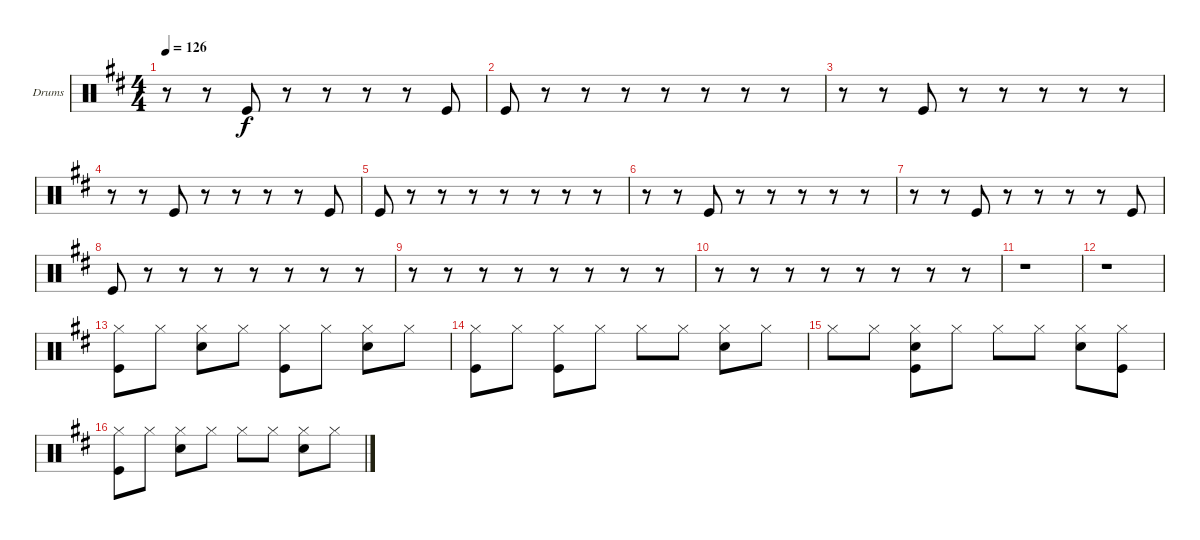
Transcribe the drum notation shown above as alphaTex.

\bracketExtendMode groupsimilarinstruments
\firstSystemTrackNameOrientation horizontal
\otherSystemsTrackNameOrientation horizontal
\track ("Drumkit" "Drums") {instrument percussion}
\staff {score}
\articulation defaults
\ts (4 4)
\tempo 126
\clef neutral
\ks d
r.8{dy f} r.8 "Kick (hit)".8 r.8 r.8 r.8 r.8 "Kick (hit)".8 |
"Kick (hit)".8 r.8 r.8 r.8 r.8 r.8 r.8 r.8 |
r.8 r.8 "Kick (hit)".8 r.8 r.8 r.8 r.8 r.8 |
r.8 r.8 "Kick (hit)".8 r.8 r.8 r.8 r.8 "Kick (hit)".8 |
"Kick (hit)".8 r.8 r.8 r.8 r.8 r.8 r.8 r.8 |
r.8 r.8 "Kick (hit)".8 r.8 r.8 r.8 r.8 r.8 |
r.8 r.8 "Kick (hit)".8 r.8 r.8 r.8 r.8 "Kick (hit)".8 |
"Kick (hit)".8 r.8 r.8 r.8 r.8 r.8 r.8 r.8 |
r.8 r.8 r.8 r.8 r.8 r.8 r.8 r.8 |
r.8 r.8 r.8 r.8 r.8 r.8 r.8 r.8 |
r.1 |
r.1 |
("Kick (hit)" "Hi-Hat (closed)").8 "Hi-Hat (closed)".8 ("Snare (hit) 2" "Hi-Hat (closed)").8 "Hi-Hat (closed)".8 ("Hi-Hat (closed)" "Kick (hit)").8 "Hi-Hat (closed)".8 ("Snare (hit) 2" "Hi-Hat (closed)").8 "Hi-Hat (closed)".8 |
("Kick (hit)" "Hi-Hat (closed)").8 "Hi-Hat (closed)".8 ("Kick (hit)" "Hi-Hat (closed)").8 "Hi-Hat (closed)".8 "Hi-Hat (closed)".8 "Hi-Hat (closed)".8 ("Hi-Hat (closed)" "Snare (hit) 2").8 "Hi-Hat (closed)".8 |
"Hi-Hat (closed)".8 "Hi-Hat (closed)".8 ("Kick (hit)" "Hi-Hat (closed)" "Snare (hit) 2").8 "Hi-Hat (closed)".8 "Hi-Hat (closed)".8 "Hi-Hat (closed)".8 ("Hi-Hat (closed)" "Snare (hit) 2").8 ("Kick (hit)" "Hi-Hat (closed)").8 |
("Kick (hit)" "Hi-Hat (closed)").8 "Hi-Hat (closed)".8 ("Hi-Hat (closed)" "Snare (hit) 2").8 "Hi-Hat (closed)".8 "Hi-Hat (closed)".8 "Hi-Hat (closed)".8 ("Hi-Hat (closed)" "Snare (hit) 2").8 "Hi-Hat (closed)".8
